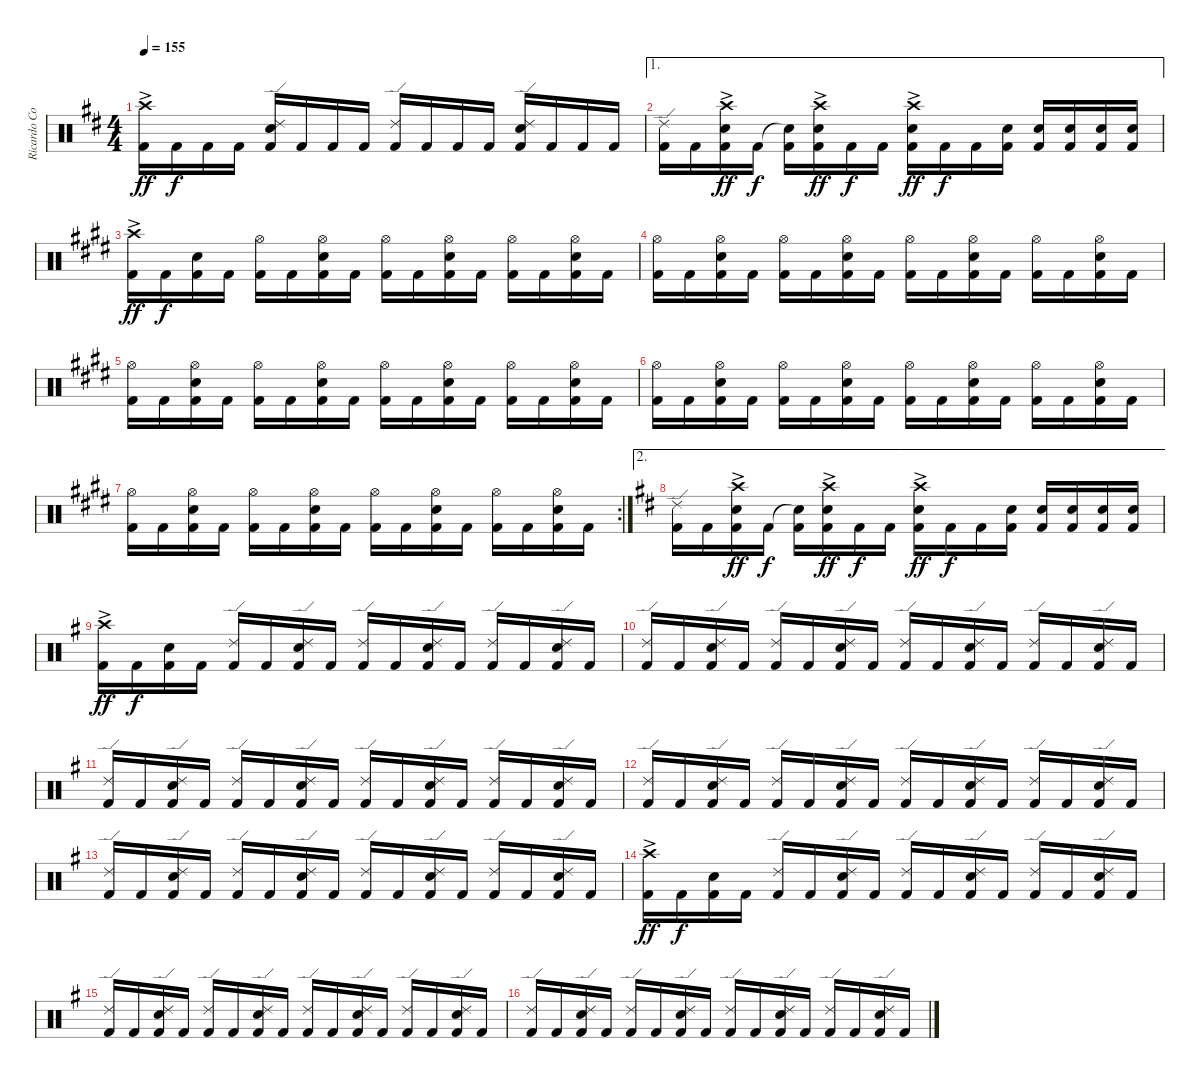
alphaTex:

\track ("Ricardo Confessori" "Ricardo Co") {instrument percussion}
\staff {score}
\articulation defaults
\ts (4 4)
\tempo 155
\clef neutral
\ks d
("Crash high (hit)"{ac} "Kick (hit) 2"{ac}).16{dy ff} "Kick (hit) 2".16{dy f} "Kick (hit) 2".16 "Kick (hit) 2".16 ("Kick (hit) 2" "Electric Snare (hit)" "Ride (edge) 2").16 "Kick (hit) 2".16 "Kick (hit) 2".16 "Kick (hit) 2".16 ("Kick (hit) 2" "Ride (edge) 2").16 "Kick (hit) 2".16 "Kick (hit) 2".16 "Kick (hit) 2".16 ("Kick (hit) 2" "Electric Snare (hit)" "Ride (edge) 2").16 "Kick (hit) 2".16 "Kick (hit) 2".16 "Kick (hit) 2".16 |
\ae 1
("Ride (edge) 2" "Kick (hit) 2").16 "Kick (hit) 2".16 ("Crash high (hit)"{ac} "Kick (hit) 2" "Electric Snare (hit)").16{dy ff} "Kick (hit) 2".16{dy f} ("Snare (hit)"{t} "Kick (hit) 2").16 ("Crash high (hit)"{ac} "Kick (hit) 2" "Electric Snare (hit)").16{dy ff} "Kick (hit) 2".16{dy f} "Kick (hit) 2".16 ("Crash high (hit)"{ac} "Kick (hit) 2" "Electric Snare (hit)").16{dy ff} "Kick (hit) 2".16{dy f} "Kick (hit) 2".16 ("Kick (hit) 2" "Electric Snare (hit)").16 ("Kick (hit) 2" "Electric Snare (hit)").16 ("Kick (hit) 2" "Electric Snare (hit)").16 ("Kick (hit) 2" "Electric Snare (hit)").16 ("Kick (hit) 2" "Electric Snare (hit)").16 |
\ks e
("Crash high (hit)"{ac} "Kick (hit) 2"{ac}).16{dy ff} "Kick (hit) 2".16{dy f} ("Electric Snare (hit)" "Kick (hit) 2").16 "Kick (hit) 2".16 ("Kick (hit) 2" "Hi-Hat (open)").16 "Kick (hit) 2".16 ("Kick (hit) 2" "Hi-Hat (open)" "Electric Snare (hit)").16 "Kick (hit) 2".16 ("Kick (hit) 2" "Hi-Hat (open)").16 "Kick (hit) 2".16 ("Kick (hit) 2" "Hi-Hat (open)" "Electric Snare (hit)").16 "Kick (hit) 2".16 ("Kick (hit) 2" "Hi-Hat (open)").16 "Kick (hit) 2".16 ("Kick (hit) 2" "Hi-Hat (open)" "Electric Snare (hit)").16 "Kick (hit) 2".16 |
("Hi-Hat (open)" "Kick (hit) 2").16 "Kick (hit) 2".16 ("Electric Snare (hit)" "Kick (hit) 2" "Hi-Hat (open)").16 "Kick (hit) 2".16 ("Kick (hit) 2" "Hi-Hat (open)").16 "Kick (hit) 2".16 ("Kick (hit) 2" "Hi-Hat (open)" "Electric Snare (hit)").16 "Kick (hit) 2".16 ("Kick (hit) 2" "Hi-Hat (open)").16 "Kick (hit) 2".16 ("Kick (hit) 2" "Hi-Hat (open)" "Electric Snare (hit)").16 "Kick (hit) 2".16 ("Kick (hit) 2" "Hi-Hat (open)").16 "Kick (hit) 2".16 ("Kick (hit) 2" "Hi-Hat (open)" "Electric Snare (hit)").16 "Kick (hit) 2".16 |
("Hi-Hat (open)" "Kick (hit) 2").16 "Kick (hit) 2".16 ("Electric Snare (hit)" "Kick (hit) 2" "Hi-Hat (open)").16 "Kick (hit) 2".16 ("Kick (hit) 2" "Hi-Hat (open)").16 "Kick (hit) 2".16 ("Kick (hit) 2" "Hi-Hat (open)" "Electric Snare (hit)").16 "Kick (hit) 2".16 ("Kick (hit) 2" "Hi-Hat (open)").16 "Kick (hit) 2".16 ("Kick (hit) 2" "Hi-Hat (open)" "Electric Snare (hit)").16 "Kick (hit) 2".16 ("Kick (hit) 2" "Hi-Hat (open)").16 "Kick (hit) 2".16 ("Kick (hit) 2" "Hi-Hat (open)" "Electric Snare (hit)").16 "Kick (hit) 2".16 |
("Hi-Hat (open)" "Kick (hit) 2").16 "Kick (hit) 2".16 ("Electric Snare (hit)" "Kick (hit) 2" "Hi-Hat (open)").16 "Kick (hit) 2".16 ("Kick (hit) 2" "Hi-Hat (open)").16 "Kick (hit) 2".16 ("Kick (hit) 2" "Hi-Hat (open)" "Electric Snare (hit)").16 "Kick (hit) 2".16 ("Kick (hit) 2" "Hi-Hat (open)").16 "Kick (hit) 2".16 ("Kick (hit) 2" "Hi-Hat (open)" "Electric Snare (hit)").16 "Kick (hit) 2".16 ("Kick (hit) 2" "Hi-Hat (open)").16 "Kick (hit) 2".16 ("Kick (hit) 2" "Hi-Hat (open)" "Electric Snare (hit)").16 "Kick (hit) 2".16 |
\rc 2
("Hi-Hat (open)" "Kick (hit) 2").16 "Kick (hit) 2".16 ("Electric Snare (hit)" "Kick (hit) 2" "Hi-Hat (open)").16 "Kick (hit) 2".16 ("Kick (hit) 2" "Hi-Hat (open)").16 "Kick (hit) 2".16 ("Kick (hit) 2" "Hi-Hat (open)" "Electric Snare (hit)").16 "Kick (hit) 2".16 ("Kick (hit) 2" "Hi-Hat (open)").16 "Kick (hit) 2".16 ("Kick (hit) 2" "Hi-Hat (open)" "Electric Snare (hit)").16 "Kick (hit) 2".16 ("Kick (hit) 2" "Hi-Hat (open)").16 "Kick (hit) 2".16 ("Kick (hit) 2" "Hi-Hat (open)" "Electric Snare (hit)").16 "Kick (hit) 2".16 |
\ae 2
\ks d
("Ride (edge) 2" "Kick (hit) 2").16 "Kick (hit) 2".16 ("Crash high (hit)"{ac} "Kick (hit) 2" "Electric Snare (hit)").16{dy ff} "Kick (hit) 2".16{dy f} ("Snare (hit)"{t} "Kick (hit) 2").16 ("Crash high (hit)"{ac} "Kick (hit) 2" "Electric Snare (hit)").16{dy ff} "Kick (hit) 2".16{dy f} "Kick (hit) 2".16 ("Crash high (hit)"{ac} "Kick (hit) 2" "Electric Snare (hit)").16{dy ff} "Kick (hit) 2".16{dy f} "Kick (hit) 2".16 ("Kick (hit) 2" "Electric Snare (hit)").16 ("Kick (hit) 2" "Electric Snare (hit)").16 ("Kick (hit) 2" "Electric Snare (hit)").16 ("Kick (hit) 2" "Electric Snare (hit)").16 ("Kick (hit) 2" "Electric Snare (hit)").16 |
\ks g
("Crash high (hit)"{ac} "Kick (hit) 2"{ac}).16{dy ff} "Kick (hit) 2".16{dy f} ("Kick (hit) 2" "Electric Snare (hit)").16 "Kick (hit) 2".16 ("Kick (hit) 2" "Ride (edge) 2").16 "Kick (hit) 2".16 ("Kick (hit) 2" "Ride (edge) 2" "Electric Snare (hit)").16 "Kick (hit) 2".16 ("Kick (hit) 2" "Ride (edge) 2").16 "Kick (hit) 2".16 ("Kick (hit) 2" "Ride (edge) 2" "Electric Snare (hit)").16 "Kick (hit) 2".16 ("Kick (hit) 2" "Ride (edge) 2").16 "Kick (hit) 2".16 ("Kick (hit) 2" "Ride (edge) 2" "Electric Snare (hit)").16 "Kick (hit) 2".16 |
("Ride (edge) 2" "Kick (hit) 2").16 "Kick (hit) 2".16 ("Kick (hit) 2" "Electric Snare (hit)" "Ride (edge) 2").16 "Kick (hit) 2".16 ("Kick (hit) 2" "Ride (edge) 2").16 "Kick (hit) 2".16 ("Kick (hit) 2" "Ride (edge) 2" "Electric Snare (hit)").16 "Kick (hit) 2".16 ("Kick (hit) 2" "Ride (edge) 2").16 "Kick (hit) 2".16 ("Kick (hit) 2" "Ride (edge) 2" "Electric Snare (hit)").16 "Kick (hit) 2".16 ("Kick (hit) 2" "Ride (edge) 2").16 "Kick (hit) 2".16 ("Kick (hit) 2" "Ride (edge) 2" "Electric Snare (hit)").16 "Kick (hit) 2".16 |
("Ride (edge) 2" "Kick (hit) 2").16 "Kick (hit) 2".16 ("Kick (hit) 2" "Electric Snare (hit)" "Ride (edge) 2").16 "Kick (hit) 2".16 ("Kick (hit) 2" "Ride (edge) 2").16 "Kick (hit) 2".16 ("Kick (hit) 2" "Ride (edge) 2" "Electric Snare (hit)").16 "Kick (hit) 2".16 ("Kick (hit) 2" "Ride (edge) 2").16 "Kick (hit) 2".16 ("Kick (hit) 2" "Ride (edge) 2" "Electric Snare (hit)").16 "Kick (hit) 2".16 ("Kick (hit) 2" "Ride (edge) 2").16 "Kick (hit) 2".16 ("Kick (hit) 2" "Ride (edge) 2" "Electric Snare (hit)").16 "Kick (hit) 2".16 |
("Ride (edge) 2" "Kick (hit) 2").16 "Kick (hit) 2".16 ("Kick (hit) 2" "Electric Snare (hit)" "Ride (edge) 2").16 "Kick (hit) 2".16 ("Kick (hit) 2" "Ride (edge) 2").16 "Kick (hit) 2".16 ("Kick (hit) 2" "Ride (edge) 2" "Electric Snare (hit)").16 "Kick (hit) 2".16 ("Kick (hit) 2" "Ride (edge) 2").16 "Kick (hit) 2".16 ("Kick (hit) 2" "Ride (edge) 2" "Electric Snare (hit)").16 "Kick (hit) 2".16 ("Kick (hit) 2" "Ride (edge) 2").16 "Kick (hit) 2".16 ("Kick (hit) 2" "Ride (edge) 2" "Electric Snare (hit)").16 "Kick (hit) 2".16 |
("Ride (edge) 2" "Kick (hit) 2").16 "Kick (hit) 2".16 ("Kick (hit) 2" "Electric Snare (hit)" "Ride (edge) 2").16 "Kick (hit) 2".16 ("Kick (hit) 2" "Ride (edge) 2").16 "Kick (hit) 2".16 ("Kick (hit) 2" "Ride (edge) 2" "Electric Snare (hit)").16 "Kick (hit) 2".16 ("Kick (hit) 2" "Ride (edge) 2").16 "Kick (hit) 2".16 ("Kick (hit) 2" "Ride (edge) 2" "Electric Snare (hit)").16 "Kick (hit) 2".16 ("Kick (hit) 2" "Ride (edge) 2").16 "Kick (hit) 2".16 ("Kick (hit) 2" "Ride (edge) 2" "Electric Snare (hit)").16 "Kick (hit) 2".16 |
("Crash high (hit)"{ac} "Kick (hit) 2"{ac}).16{dy ff} "Kick (hit) 2".16{dy f} ("Kick (hit) 2" "Electric Snare (hit)").16 "Kick (hit) 2".16 ("Kick (hit) 2" "Ride (edge) 2").16 "Kick (hit) 2".16 ("Kick (hit) 2" "Ride (edge) 2" "Electric Snare (hit)").16 "Kick (hit) 2".16 ("Kick (hit) 2" "Ride (edge) 2").16 "Kick (hit) 2".16 ("Kick (hit) 2" "Ride (edge) 2" "Electric Snare (hit)").16 "Kick (hit) 2".16 ("Kick (hit) 2" "Ride (edge) 2").16 "Kick (hit) 2".16 ("Kick (hit) 2" "Ride (edge) 2" "Electric Snare (hit)").16 "Kick (hit) 2".16 |
("Ride (edge) 2" "Kick (hit) 2").16 "Kick (hit) 2".16 ("Kick (hit) 2" "Electric Snare (hit)" "Ride (edge) 2").16 "Kick (hit) 2".16 ("Kick (hit) 2" "Ride (edge) 2").16 "Kick (hit) 2".16 ("Kick (hit) 2" "Ride (edge) 2" "Electric Snare (hit)").16 "Kick (hit) 2".16 ("Kick (hit) 2" "Ride (edge) 2").16 "Kick (hit) 2".16 ("Kick (hit) 2" "Ride (edge) 2" "Electric Snare (hit)").16 "Kick (hit) 2".16 ("Kick (hit) 2" "Ride (edge) 2").16 "Kick (hit) 2".16 ("Kick (hit) 2" "Ride (edge) 2" "Electric Snare (hit)").16 "Kick (hit) 2".16 |
("Ride (edge) 2" "Kick (hit) 2").16 "Kick (hit) 2".16 ("Kick (hit) 2" "Electric Snare (hit)" "Ride (edge) 2").16 "Kick (hit) 2".16 ("Kick (hit) 2" "Ride (edge) 2").16 "Kick (hit) 2".16 ("Kick (hit) 2" "Ride (edge) 2" "Electric Snare (hit)").16 "Kick (hit) 2".16 ("Kick (hit) 2" "Ride (edge) 2").16 "Kick (hit) 2".16 ("Kick (hit) 2" "Ride (edge) 2" "Electric Snare (hit)").16 "Kick (hit) 2".16 ("Kick (hit) 2" "Ride (edge) 2").16 "Kick (hit) 2".16 ("Kick (hit) 2" "Ride (edge) 2" "Electric Snare (hit)").16 "Kick (hit) 2".16
